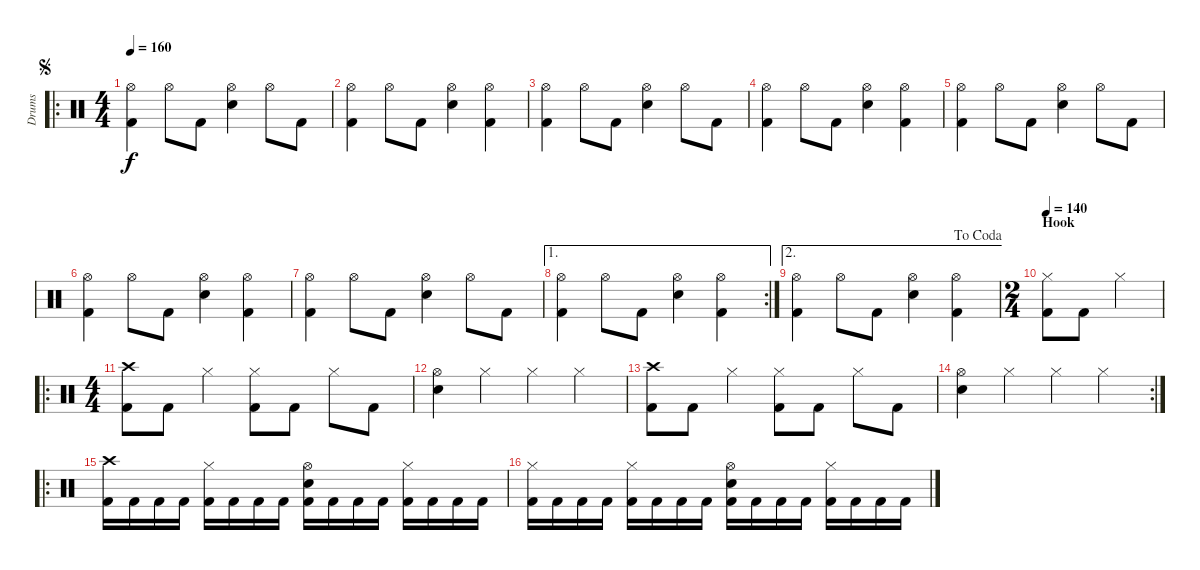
\track ("Drums" "Drums") {instrument percussion}
\staff {score}
\articulation defaults
\ro
\ts (4 4)
\jump segno
\tempo 160
\clef neutral
\ks c
("Hi-Hat (open)" "Kick (hit) 2").4{dy f} "Hi-Hat (open)".8 "Kick (hit) 2".8 ("Hi-Hat (open)" "Snare (hit) 2").4 "Hi-Hat (open)".8 "Kick (hit) 2".8 |
("Hi-Hat (open)" "Kick (hit) 2").4 "Hi-Hat (open)".8 "Kick (hit) 2".8 ("Hi-Hat (open)" "Snare (hit) 2").4 ("Hi-Hat (open)" "Kick (hit) 2").4 |
("Hi-Hat (open)" "Kick (hit) 2").4 "Hi-Hat (open)".8 "Kick (hit) 2".8 ("Hi-Hat (open)" "Snare (hit) 2").4 "Hi-Hat (open)".8 "Kick (hit) 2".8 |
("Hi-Hat (open)" "Kick (hit) 2").4 "Hi-Hat (open)".8 "Kick (hit) 2".8 ("Hi-Hat (open)" "Snare (hit) 2").4 ("Hi-Hat (open)" "Kick (hit) 2").4 |
("Hi-Hat (open)" "Kick (hit) 2").4 "Hi-Hat (open)".8 "Kick (hit) 2".8 ("Hi-Hat (open)" "Snare (hit) 2").4 "Hi-Hat (open)".8 "Kick (hit) 2".8 |
("Hi-Hat (open)" "Kick (hit) 2").4 "Hi-Hat (open)".8 "Kick (hit) 2".8 ("Hi-Hat (open)" "Snare (hit) 2").4 ("Hi-Hat (open)" "Kick (hit) 2").4 |
("Hi-Hat (open)" "Kick (hit) 2").4 "Hi-Hat (open)".8 "Kick (hit) 2".8 ("Hi-Hat (open)" "Snare (hit) 2").4 "Hi-Hat (open)".8 "Kick (hit) 2".8 |
\ae 1
\rc 2
("Hi-Hat (open)" "Kick (hit) 2").4 "Hi-Hat (open)".8 "Kick (hit) 2".8 ("Hi-Hat (open)" "Snare (hit) 2").4 ("Hi-Hat (open)" "Kick (hit) 2").4 |
\ae 2
\jump dacoda
("Hi-Hat (open)" "Kick (hit) 2").4 "Hi-Hat (open)".8 "Kick (hit) 2".8 ("Hi-Hat (open)" "Snare (hit) 2").4 ("Hi-Hat (open)" "Kick (hit) 2").4 |
\ts (2 4)
\section ("" "Hook")
\tempo 140
("Hi-Hat (closed)" "Kick (hit) 2").8 "Kick (hit) 2".8 "Hi-Hat (closed)".4 |
\ro
\ts (4 4)
("Crash high (hit)" "Kick (hit) 2").8 "Kick (hit) 2".8 "Hi-Hat (closed)".4 ("Hi-Hat (closed)" "Kick (hit) 2").8 "Kick (hit) 2".8 "Hi-Hat (closed)".8 "Kick (hit) 2".8 |
("Hi-Hat (open)" "Snare (hit) 2").4 "Hi-Hat (closed)".4 "Hi-Hat (closed)".4 "Hi-Hat (closed)".4 |
("Crash high (hit)" "Kick (hit) 2").8 "Kick (hit) 2".8 "Hi-Hat (closed)".4 ("Hi-Hat (closed)" "Kick (hit) 2").8 "Kick (hit) 2".8 "Hi-Hat (closed)".8 "Kick (hit) 2".8 |
\rc 2
("Hi-Hat (open)" "Snare (hit) 2").4 "Hi-Hat (closed)".4 "Hi-Hat (closed)".4 "Hi-Hat (closed)".4 |
\ro
("Crash high (hit)" "Kick (hit) 2").16 "Kick (hit) 2".16 "Kick (hit) 2".16 "Kick (hit) 2".16 ("Hi-Hat (closed)" "Kick (hit) 2").16 "Kick (hit) 2".16 "Kick (hit) 2".16 "Kick (hit) 2".16 ("Hi-Hat (open)" "Snare (hit) 2" "Kick (hit) 2").16 "Kick (hit) 2".16 "Kick (hit) 2".16 "Kick (hit) 2".16 ("Hi-Hat (closed)" "Kick (hit) 2").16 "Kick (hit) 2".16 "Kick (hit) 2".16 "Kick (hit) 2".16 |
("Hi-Hat (closed)" "Kick (hit) 2").16 "Kick (hit) 2".16 "Kick (hit) 2".16 "Kick (hit) 2".16 ("Hi-Hat (closed)" "Kick (hit) 2").16 "Kick (hit) 2".16 "Kick (hit) 2".16 "Kick (hit) 2".16 ("Hi-Hat (open)" "Snare (hit) 2" "Kick (hit) 2").16 "Kick (hit) 2".16 "Kick (hit) 2".16 "Kick (hit) 2".16 ("Hi-Hat (closed)" "Kick (hit) 2").16 "Kick (hit) 2".16 "Kick (hit) 2".16 "Kick (hit) 2".16
